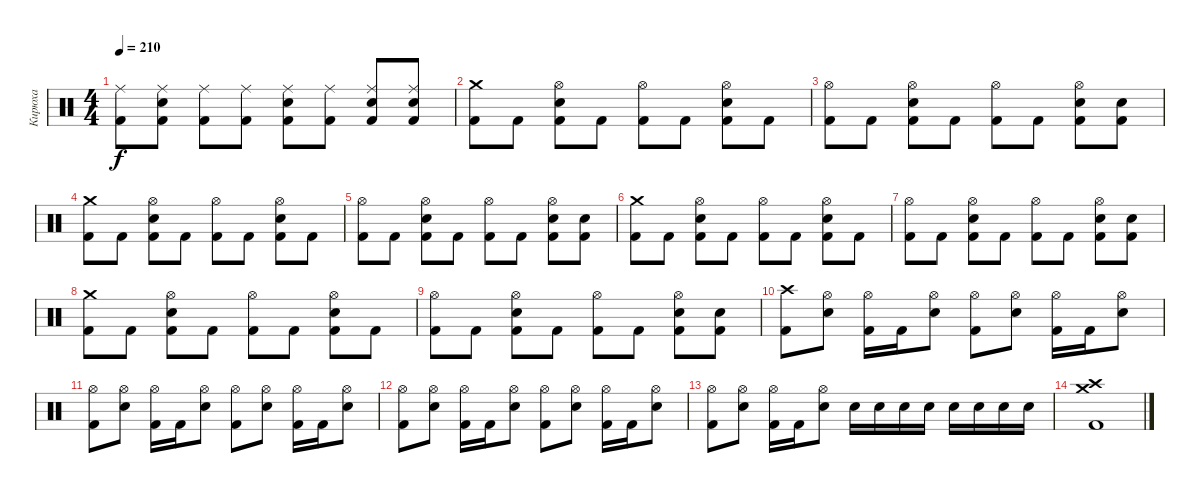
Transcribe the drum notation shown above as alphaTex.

\track ("Кирюха" "Кирюха") {instrument percussion}
\staff {score}
\articulation defaults
\ts (4 4)
\tempo 210
\clef neutral
\ks c
("Kick (hit) 2" "Ride (middle)").8{dy f} ("Kick (hit) 2" "Electric Snare (hit)" "Ride (middle)").8 ("Kick (hit) 2" "Ride (middle)").8 ("Kick (hit) 2" "Ride (middle)").8 ("Kick (hit) 2" "Electric Snare (hit)" "Ride (middle)").8 ("Kick (hit) 2" "Ride (middle)").8 ("Kick (hit) 2" "Electric Snare (hit)" "Ride (middle)").8 ("Kick (hit) 2" "Electric Snare (hit)" "Ride (middle)").8 |
("Kick (hit) 2" "Crash medium (hit)").8 "Kick (hit) 2".8 ("Kick (hit) 2" "Electric Snare (hit)" "Hi-Hat (open)").8 "Kick (hit) 2".8 ("Kick (hit) 2" "Hi-Hat (open)").8 "Kick (hit) 2".8 ("Kick (hit) 2" "Electric Snare (hit)" "Hi-Hat (open)").8 "Kick (hit) 2".8 |
("Kick (hit) 2" "Hi-Hat (open)").8 "Kick (hit) 2".8 ("Kick (hit) 2" "Electric Snare (hit)" "Hi-Hat (open)").8 "Kick (hit) 2".8 ("Kick (hit) 2" "Hi-Hat (open)").8 "Kick (hit) 2".8 ("Kick (hit) 2" "Electric Snare (hit)" "Hi-Hat (open)").8 ("Kick (hit) 2" "Electric Snare (hit)").8 |
("Kick (hit) 2" "Crash medium (hit)").8 "Kick (hit) 2".8 ("Kick (hit) 2" "Electric Snare (hit)" "Hi-Hat (open)").8 "Kick (hit) 2".8 ("Kick (hit) 2" "Hi-Hat (open)").8 "Kick (hit) 2".8 ("Kick (hit) 2" "Electric Snare (hit)" "Hi-Hat (open)").8 "Kick (hit) 2".8 |
("Kick (hit) 2" "Hi-Hat (open)").8 "Kick (hit) 2".8 ("Kick (hit) 2" "Electric Snare (hit)" "Hi-Hat (open)").8 "Kick (hit) 2".8 ("Kick (hit) 2" "Hi-Hat (open)").8 "Kick (hit) 2".8 ("Kick (hit) 2" "Electric Snare (hit)" "Hi-Hat (open)").8 ("Kick (hit) 2" "Electric Snare (hit)").8 |
("Kick (hit) 2" "Crash medium (hit)").8 "Kick (hit) 2".8 ("Kick (hit) 2" "Electric Snare (hit)" "Hi-Hat (open)").8 "Kick (hit) 2".8 ("Kick (hit) 2" "Hi-Hat (open)").8 "Kick (hit) 2".8 ("Kick (hit) 2" "Electric Snare (hit)" "Hi-Hat (open)").8 "Kick (hit) 2".8 |
("Kick (hit) 2" "Hi-Hat (open)").8 "Kick (hit) 2".8 ("Kick (hit) 2" "Electric Snare (hit)" "Hi-Hat (open)").8 "Kick (hit) 2".8 ("Kick (hit) 2" "Hi-Hat (open)").8 "Kick (hit) 2".8 ("Kick (hit) 2" "Electric Snare (hit)" "Hi-Hat (open)").8 ("Kick (hit) 2" "Electric Snare (hit)").8 |
("Kick (hit) 2" "Crash medium (hit)").8 "Kick (hit) 2".8 ("Kick (hit) 2" "Electric Snare (hit)" "Hi-Hat (open)").8 "Kick (hit) 2".8 ("Kick (hit) 2" "Hi-Hat (open)").8 "Kick (hit) 2".8 ("Kick (hit) 2" "Electric Snare (hit)" "Hi-Hat (open)").8 "Kick (hit) 2".8 |
("Kick (hit) 2" "Hi-Hat (open)").8 "Kick (hit) 2".8 ("Kick (hit) 2" "Electric Snare (hit)" "Hi-Hat (open)").8 "Kick (hit) 2".8 ("Kick (hit) 2" "Hi-Hat (open)").8 "Kick (hit) 2".8 ("Kick (hit) 2" "Electric Snare (hit)" "Hi-Hat (open)").8 ("Kick (hit) 2" "Electric Snare (hit)").8 |
("Kick (hit) 2" "Crash high (hit)").8 ("Electric Snare (hit)" "Hi-Hat (open)").8 ("Kick (hit) 2" "Hi-Hat (open)").16 "Kick (hit) 2".16 ("Electric Snare (hit)" "Hi-Hat (open)").8 ("Kick (hit) 2" "Hi-Hat (open)").8 ("Electric Snare (hit)" "Hi-Hat (open)").8 ("Kick (hit) 2" "Hi-Hat (open)").16 "Kick (hit) 2".16 ("Electric Snare (hit)" "Hi-Hat (open)").8 |
("Kick (hit) 2" "Hi-Hat (open)").8 ("Electric Snare (hit)" "Hi-Hat (open)").8 ("Kick (hit) 2" "Hi-Hat (open)").16 "Kick (hit) 2".16 ("Electric Snare (hit)" "Hi-Hat (open)").8 ("Kick (hit) 2" "Hi-Hat (open)").8 ("Electric Snare (hit)" "Hi-Hat (open)").8 ("Kick (hit) 2" "Hi-Hat (open)").16 "Kick (hit) 2".16 ("Electric Snare (hit)" "Hi-Hat (open)").8 |
("Kick (hit) 2" "Hi-Hat (open)").8 ("Electric Snare (hit)" "Hi-Hat (open)").8 ("Kick (hit) 2" "Hi-Hat (open)").16 "Kick (hit) 2".16 ("Electric Snare (hit)" "Hi-Hat (open)").8 ("Kick (hit) 2" "Hi-Hat (open)").8 ("Electric Snare (hit)" "Hi-Hat (open)").8 ("Kick (hit) 2" "Hi-Hat (open)").16 "Kick (hit) 2".16 ("Electric Snare (hit)" "Hi-Hat (open)").8 |
("Kick (hit) 2" "Hi-Hat (open)").8 ("Electric Snare (hit)" "Hi-Hat (open)").8 ("Kick (hit) 2" "Hi-Hat (open)").16 "Kick (hit) 2".16 ("Electric Snare (hit)" "Hi-Hat (open)").8 "Electric Snare (hit)".16 "Electric Snare (hit)".16 "Electric Snare (hit)".16 "Electric Snare (hit)".16 "Electric Snare (hit)".16 "Electric Snare (hit)".16 "Electric Snare (hit)".16 "Electric Snare (hit)".16 |
("Kick (hit) 2" "Crash medium (hit)" "Crash high (hit)").1
